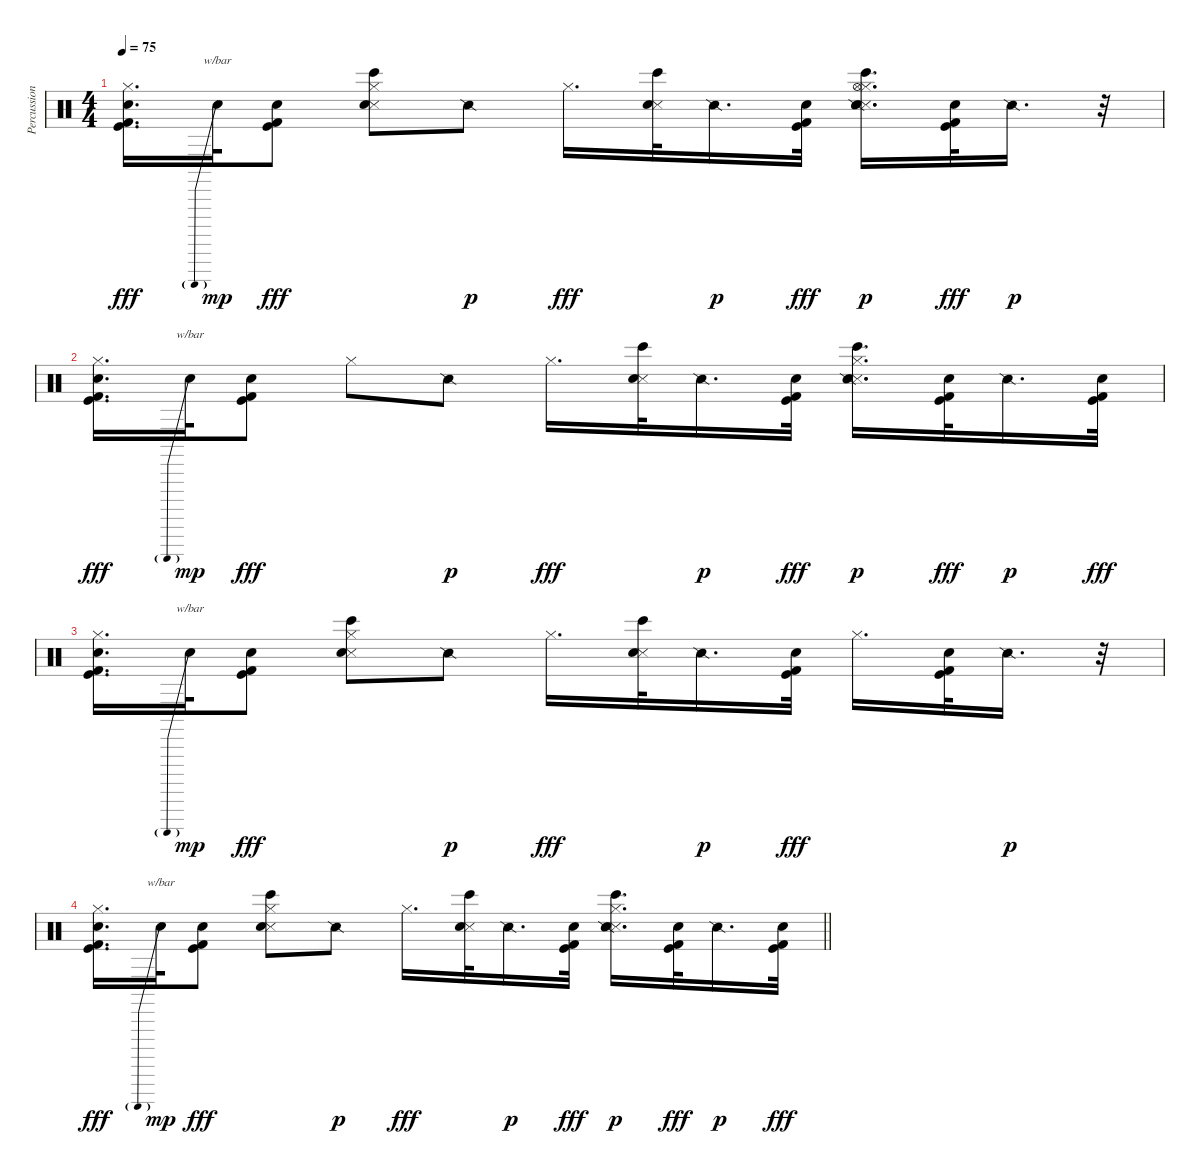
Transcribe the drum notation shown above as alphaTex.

\track ("Percussion" "Percussion") {instrument percussion}
\staff {score}
\articulation defaults
\ts (4 4)
\tempo 75
\clef neutral
\ks c
("Hi-Hat (closed)" "Snare (hit) 2" "Kick (hit)" "Kick (hit) 2").16{d dy fff} "Hand Clap (hit)".32{tbe (predive default 0 24 60 24) dy mp} ("Snare (hit) 2" "Kick (hit)" "Kick (hit) 2").8{dy fff} ("Hi-Hat (closed)" "Snare (side stick) 3" "Snare (hit) 2" "Bongo High (hit)").8 "Snare (side stick) 2".8{dy p} "Hi-Hat (closed)".16{d dy fff} ("Snare (side stick) 3" "Snare (hit) 2" "Bongo High (hit)").32 "Snare (side stick) 2".16{d dy p} ("Snare (hit) 2" "Kick (hit)" "Kick (hit) 2").32{dy fff} ("Hi-Hat (closed)" "Snare (side stick) 3" "Snare (hit) 2" "Bongo High (hit)" "Snare (side stick) 2" "Hi-Hat (open)").16{d dy p} ("Snare (hit) 2" "Kick (hit)" "Kick (hit) 2").32{dy fff} "Snare (side stick) 2".16{d dy p} r.32 |
("Hi-Hat (closed)" "Snare (hit) 2" "Kick (hit)" "Kick (hit) 2").16{d dy fff} "Hand Clap (hit)".32{tbe (predive default 0 24 60 24) dy mp} ("Snare (hit) 2" "Kick (hit)" "Kick (hit) 2").8{dy fff} "Hi-Hat (closed)".8 "Snare (side stick) 2".8{dy p} "Hi-Hat (closed)".16{d dy fff} ("Snare (side stick) 3" "Snare (hit) 2" "Bongo High (hit)").32 "Snare (side stick) 2".16{d dy p} ("Snare (hit) 2" "Kick (hit)" "Kick (hit) 2").32{dy fff} ("Hi-Hat (closed)" "Snare (side stick) 3" "Snare (hit) 2" "Bongo High (hit)" "Snare (side stick) 2").16{d dy p} ("Snare (hit) 2" "Kick (hit)" "Kick (hit) 2").32{dy fff} "Snare (side stick) 2".16{d dy p} ("Snare (hit) 2" "Kick (hit)" "Kick (hit) 2").32{dy fff} |
("Hi-Hat (closed)" "Snare (hit) 2" "Kick (hit)" "Kick (hit) 2").16{d} "Hand Clap (hit)".32{tbe (predive default 0 24 60 24) dy mp} ("Snare (hit) 2" "Kick (hit)" "Kick (hit) 2").8{dy fff} ("Hi-Hat (closed)" "Snare (side stick) 3" "Snare (hit) 2" "Bongo High (hit)").8 "Snare (side stick) 2".8{dy p} "Hi-Hat (closed)".16{d dy fff} ("Snare (side stick) 3" "Snare (hit) 2" "Bongo High (hit)").32 "Snare (side stick) 2".16{d dy p} ("Snare (hit) 2" "Kick (hit)" "Kick (hit) 2").32{dy fff} "Hi-Hat (closed)".16{d} ("Snare (hit) 2" "Kick (hit)" "Kick (hit) 2").32 "Snare (side stick) 2".16{d dy p} r.32 |
\barLineRight lightlight
("Hi-Hat (closed)" "Snare (hit) 2" "Kick (hit)" "Kick (hit) 2").16{d dy fff} "Hand Clap (hit)".32{tbe (predive default 0 24 60 24) dy mp} ("Snare (hit) 2" "Kick (hit)" "Kick (hit) 2").8{dy fff} ("Hi-Hat (closed)" "Snare (side stick) 3" "Snare (hit) 2" "Bongo High (hit)").8 "Snare (side stick) 2".8{dy p} "Hi-Hat (closed)".16{d dy fff} ("Snare (side stick) 3" "Snare (hit) 2" "Bongo High (hit)").32 "Snare (side stick) 2".16{d dy p} ("Snare (hit) 2" "Kick (hit)" "Kick (hit) 2").32{dy fff} ("Hi-Hat (closed)" "Snare (side stick) 3" "Snare (hit) 2" "Bongo High (hit)" "Snare (side stick) 2").16{d dy p} ("Snare (hit) 2" "Kick (hit)" "Kick (hit) 2").32{dy fff} "Snare (side stick) 2".16{d dy p} ("Snare (hit) 2" "Kick (hit)" "Kick (hit) 2").32{dy fff}
